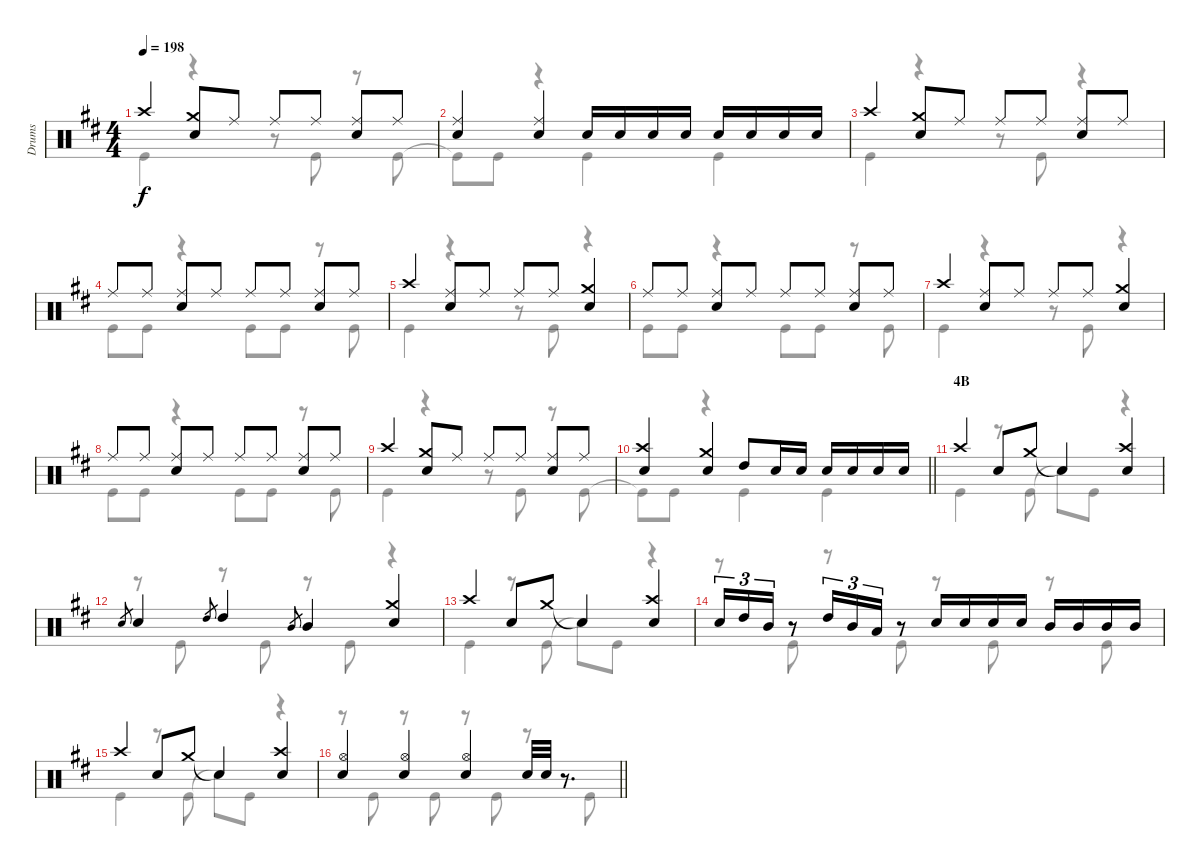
\track ("Drums" "Drums") {instrument percussion}
\staff {score}
\articulation defaults
\voice
\ts (4 4)
\tempo 198
\clef neutral
\ks d "Crash high (hit)".4{dy f}
("Crash medium (hit)" "Snare (hit) 2").8 "Ride (middle)".8 "Ride (middle)".8 "Ride (middle)".8 ("Ride (middle)" "Snare (hit) 2").8 "Ride (middle)".8 |
("Ride (middle)" "Snare (hit) 2").4 ("Ride (middle)" "Snare (hit) 2").4 "Snare (hit) 2".16 "Snare (hit) 2".16 "Snare (hit) 2".16 "Snare (hit) 2".16 "Snare (hit) 2".16 "Snare (hit) 2".16 "Snare (hit) 2".16 "Snare (hit) 2".16 |
"Crash high (hit)".4 ("Crash medium (hit)" "Snare (hit) 2").8 "Ride (middle)".8 "Ride (middle)".8 "Ride (middle)".8 ("Ride (middle)" "Snare (hit) 2").8 "Ride (middle)".8 |
"Ride (middle)".8 "Ride (middle)".8 ("Ride (middle)" "Snare (hit) 2").8 "Ride (middle)".8 "Ride (middle)".8 "Ride (middle)".8 ("Ride (middle)" "Snare (hit) 2").8 "Ride (middle)".8 |
"Crash high (hit)".4 ("Ride (middle)" "Snare (hit) 2").8 "Ride (middle)".8 "Ride (middle)".8 "Ride (middle)".8 ("Crash medium (hit)" "Snare (hit) 2").4 |
"Ride (middle)".8 "Ride (middle)".8 ("Ride (middle)" "Snare (hit) 2").8 "Ride (middle)".8 "Ride (middle)".8 "Ride (middle)".8 ("Ride (middle)" "Snare (hit) 2").8 "Ride (middle)".8 |
"Crash high (hit)".4 ("Ride (middle)" "Snare (hit) 2").8 "Ride (middle)".8 "Ride (middle)".8 "Ride (middle)".8 ("Crash medium (hit)" "Snare (hit) 2").4 |
"Ride (middle)".8 "Ride (middle)".8 ("Ride (middle)" "Snare (hit) 2").8 "Ride (middle)".8 "Ride (middle)".8 "Ride (middle)".8 ("Ride (middle)" "Snare (hit) 2").8 "Ride (middle)".8 |
"Crash high (hit)".4 ("Crash medium (hit)" "Snare (hit) 2").8 "Ride (middle)".8 "Ride (middle)".8 "Ride (middle)".8 ("Ride (middle)" "Snare (hit) 2").8 "Ride (middle)".8 |
\barLineRight lightlight
("Crash high (hit)" "Snare (hit) 2").4 ("Crash medium (hit)" "Snare (hit) 2").4 "High Tom (hit)".8 "Snare (hit) 2".16 "Snare (hit) 2".16 "Snare (hit) 2".16 "Snare (hit) 2".16 "Snare (hit) 2".16 "Snare (hit) 2".16 |
\section ("" "4B")
"Crash high (hit)".4 "Snare (hit) 2".8 "Crash medium (hit)".8 "Snare (hit)"{t}.4 ("Crash high (hit)" "Snare (hit) 2").4 |
"Snare (hit) 2".8{gr} "Snare (hit) 2".4 "High Tom (hit)".8{gr} "High Tom (hit)".4 "Mid Tom (hit)".8{gr} "Mid Tom (hit)".4 ("Crash medium (hit)" "Snare (hit) 2").4 |
"Crash high (hit)".4 "Snare (hit) 2".8 "Crash medium (hit)".8 "Snare (hit)"{t}.4 ("Crash high (hit)" "Snare (hit) 2").4 |
"Snare (hit) 2".16{tu (3 2)} "High Tom (hit)".16{tu (3 2)} "Mid Tom (hit)".16{tu (3 2)} r.8 "High Tom (hit)".16{tu (3 2)} "Mid Tom (hit)".16{tu (3 2)} "Low Tom (hit)".16{tu (3 2)} r.8 "Snare (hit) 2".16 "Snare (hit) 2".16 "Snare (hit) 2".16 "Snare (hit) 2".16 "Mid Tom (hit)".16 "Mid Tom (hit)".16 "Mid Tom (hit)".16 "Mid Tom (hit)".16 |
"Crash high (hit)".4 "Snare (hit) 2".8 "Crash medium (hit)".8 "Snare (hit)"{t}.4 ("Crash high (hit)" "Snare (hit) 2").4 |
\barLineRight lightlight
("Hi-Hat (open)" "Snare (hit) 2").4 ("Hi-Hat (open)" "Snare (hit) 2").4 ("Hi-Hat (open)" "Snare (hit) 2").4 "Snare (hit) 2".32 "Snare (hit) 2".32 r.8{d}
\voice
\clef neutral
\ottava regular
\simile none
\ks d "Kick (hit)".4{dy f}
r.4 r.8 "Kick (hit)".8 r.8 "Kick (hit)".8 |
"Kick (hit)"{t}.8 "Kick (hit)".8 r.4 "Kick (hit)".4 "Kick (hit)".4 |
"Kick (hit)".4 r.4 r.8 "Kick (hit)".8 r.4 |
"Kick (hit)".8 "Kick (hit)".8 r.4 "Kick (hit)".8 "Kick (hit)".8 r.8 "Kick (hit)".8 |
"Kick (hit)".4 r.4 r.8 "Kick (hit)".8 r.4 |
"Kick (hit)".8 "Kick (hit)".8 r.4 "Kick (hit)".8 "Kick (hit)".8 r.8 "Kick (hit)".8 |
"Kick (hit)".4 r.4 r.8 "Kick (hit)".8 r.4 |
"Kick (hit)".8 "Kick (hit)".8 r.4 "Kick (hit)".8 "Kick (hit)".8 r.8 "Kick (hit)".8 |
"Kick (hit)".4 r.4 r.8 "Kick (hit)".8 r.8 "Kick (hit)".8 |
\barLineRight lightlight "Kick (hit)"{t}.8 "Kick (hit)".8
r.4 "Kick (hit)".4 "Kick (hit)".4 |
"Kick (hit)".4 r.8 "Kick (hit)".8 "Snare (hit)"{t}.8 "Kick (hit)".8 r.4 |
r.8 "Kick (hit)".8 r.8 "Kick (hit)".8 r.8 "Kick (hit)".8 r.4 |
"Kick (hit)".4 r.8 "Kick (hit)".8 "Snare (hit)"{t}.8 "Kick (hit)".8 r.4 |
r.8 "Kick (hit)".8 r.8 "Kick (hit)".8 r.8 "Kick (hit)".8 r.8 "Kick (hit)".8 |
"Kick (hit)".4 r.8 "Kick (hit)".8 "Snare (hit)"{t}.8 "Kick (hit)".8 r.4 |
\barLineRight lightlight
r.8 "Kick (hit)".8 r.8 "Kick (hit)".8 r.8 "Kick (hit)".8 r.8 "Kick (hit)".8
